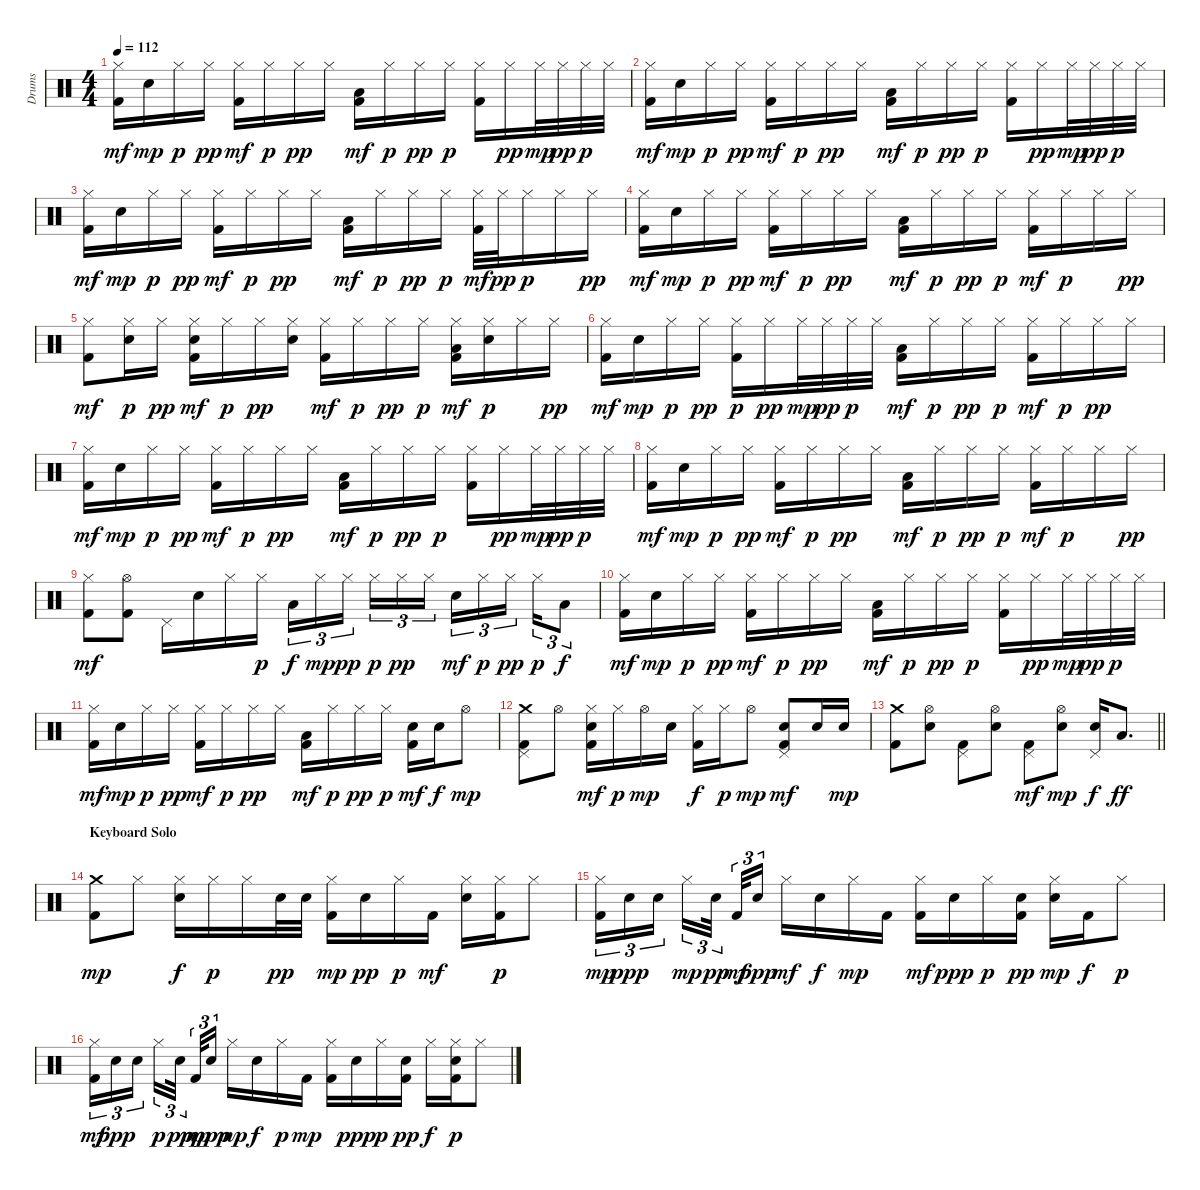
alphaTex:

\track ("Drums" "Drums") {instrument percussion}
\staff {score}
\articulation defaults
\ts (4 4)
\tempo 112
\clef neutral
\ks c
("Kick (hit) 2" "Hi-Hat (closed)").16{dy mf} "Snare (hit) 2".16{dy mp} "Hi-Hat (closed)".16{dy p} "Hi-Hat (closed)".16{dy pp} ("Kick (hit) 2" "Hi-Hat (closed)").16{dy mf} "Hi-Hat (closed)".16{dy p} "Hi-Hat (closed)".16{dy pp} "Hi-Hat (closed)".16 ("Kick (hit) 2" "Low Floor Tom (hit)").16{dy mf} "Hi-Hat (closed)".16{dy p} "Hi-Hat (closed)".16{dy pp} "Hi-Hat (closed)".16{dy p} ("Kick (hit) 2" "Hi-Hat (closed)").16 "Hi-Hat (closed)".16{dy pp} "Hi-Hat (closed)".32{dy mp} "Hi-Hat (closed)".32{dy pp} "Hi-Hat (closed)".32{dy p} "Hi-Hat (closed)".32 |
("Kick (hit) 2" "Hi-Hat (closed)").16{dy mf} "Snare (hit) 2".16{dy mp} "Hi-Hat (closed)".16{dy p} "Hi-Hat (closed)".16{dy pp} ("Kick (hit) 2" "Hi-Hat (closed)").16{dy mf} "Hi-Hat (closed)".16{dy p} "Hi-Hat (closed)".16{dy pp} "Hi-Hat (closed)".16 ("Kick (hit) 2" "Low Floor Tom (hit)").16{dy mf} "Hi-Hat (closed)".16{dy p} "Hi-Hat (closed)".16{dy pp} "Hi-Hat (closed)".16{dy p} ("Kick (hit) 2" "Hi-Hat (closed)").16 "Hi-Hat (closed)".16{dy pp} "Hi-Hat (closed)".32{dy mp} "Hi-Hat (closed)".32{dy pp} "Hi-Hat (closed)".32{dy p} "Hi-Hat (closed)".32 |
("Kick (hit) 2" "Hi-Hat (closed)").16{dy mf} "Snare (hit) 2".16{dy mp} "Hi-Hat (closed)".16{dy p} "Hi-Hat (closed)".16{dy pp} ("Kick (hit) 2" "Hi-Hat (closed)").16{dy mf} "Hi-Hat (closed)".16{dy p} "Hi-Hat (closed)".16{dy pp} "Hi-Hat (closed)".16 ("Kick (hit) 2" "Low Floor Tom (hit)").16{dy mf} "Hi-Hat (closed)".16{dy p} "Hi-Hat (closed)".16{dy pp} "Hi-Hat (closed)".16{dy p} ("Kick (hit) 2" "Hi-Hat (closed)").32{dy mf} "Hi-Hat (closed)".32{dy pp} "Hi-Hat (closed)".16{dy p} "Hi-Hat (closed)".16 "Hi-Hat (closed)".16{dy pp} |
("Kick (hit) 2" "Hi-Hat (closed)").16{dy mf} "Snare (hit) 2".16{dy mp} "Hi-Hat (closed)".16{dy p} "Hi-Hat (closed)".16{dy pp} ("Kick (hit) 2" "Hi-Hat (closed)").16{dy mf} "Hi-Hat (closed)".16{dy p} "Hi-Hat (closed)".16{dy pp} "Hi-Hat (closed)".16 ("Kick (hit) 2" "Low Floor Tom (hit)").16{dy mf} "Hi-Hat (closed)".16{dy p} "Hi-Hat (closed)".16{dy pp} "Hi-Hat (closed)".16{dy p} ("Kick (hit) 2" "Hi-Hat (closed)").16{dy mf} "Hi-Hat (closed)".16{dy p} "Hi-Hat (closed)".16 "Hi-Hat (closed)".16{dy pp} |
("Kick (hit) 2" "Hi-Hat (closed)").8{dy mf} ("Snare (hit) 2" "Hi-Hat (closed)").16{dy p} "Hi-Hat (closed)".16{dy pp} ("Kick (hit) 2" "Snare (hit) 2" "Hi-Hat (closed)").16{dy mf} "Hi-Hat (closed)".16{dy p} "Hi-Hat (closed)".16{dy pp} ("Snare (hit) 2" "Hi-Hat (closed)").16 ("Kick (hit) 2" "Hi-Hat (closed)").16{dy mf} "Hi-Hat (closed)".16{dy p} "Hi-Hat (closed)".16{dy pp} "Hi-Hat (closed)".16{dy p} ("Kick (hit) 2" "Hi-Hat (closed)" "Low Floor Tom (hit)").16{dy mf} ("Snare (hit) 2" "Hi-Hat (closed)").16{dy p} "Hi-Hat (closed)".16 "Hi-Hat (closed)".16{dy pp} |
("Kick (hit) 2" "Hi-Hat (closed)").16{dy mf} "Snare (hit) 2".16{dy mp} "Hi-Hat (closed)".16{dy p} "Hi-Hat (closed)".16{dy pp} ("Kick (hit) 2" "Hi-Hat (closed)").16{dy p} "Hi-Hat (closed)".16{dy pp} "Hi-Hat (closed)".32{dy mp} "Hi-Hat (closed)".32{dy pp} "Hi-Hat (closed)".32{dy p} "Hi-Hat (closed)".32 ("Kick (hit) 2" "Low Floor Tom (hit)").16{dy mf} "Hi-Hat (closed)".16{dy p} "Hi-Hat (closed)".16{dy pp} "Hi-Hat (closed)".16{dy p} ("Kick (hit) 2" "Hi-Hat (closed)").16{dy mf} "Hi-Hat (closed)".16{dy p} "Hi-Hat (closed)".16{dy pp} "Hi-Hat (closed)".16 |
("Kick (hit) 2" "Hi-Hat (closed)").16{dy mf} "Snare (hit) 2".16{dy mp} "Hi-Hat (closed)".16{dy p} "Hi-Hat (closed)".16{dy pp} ("Kick (hit) 2" "Hi-Hat (closed)").16{dy mf} "Hi-Hat (closed)".16{dy p} "Hi-Hat (closed)".16{dy pp} "Hi-Hat (closed)".16 ("Kick (hit) 2" "Low Floor Tom (hit)").16{dy mf} "Hi-Hat (closed)".16{dy p} "Hi-Hat (closed)".16{dy pp} "Hi-Hat (closed)".16{dy p} ("Kick (hit) 2" "Hi-Hat (closed)").16 "Hi-Hat (closed)".16{dy pp} "Hi-Hat (closed)".32{dy mp} "Hi-Hat (closed)".32{dy pp} "Hi-Hat (closed)".32{dy p} "Hi-Hat (closed)".32 |
("Kick (hit) 2" "Hi-Hat (closed)").16{dy mf} "Snare (hit) 2".16{dy mp} "Hi-Hat (closed)".16{dy p} "Hi-Hat (closed)".16{dy pp} ("Kick (hit) 2" "Hi-Hat (closed)").16{dy mf} "Hi-Hat (closed)".16{dy p} "Hi-Hat (closed)".16{dy pp} "Hi-Hat (closed)".16 ("Kick (hit) 2" "Low Floor Tom (hit)").16{dy mf} "Hi-Hat (closed)".16{dy p} "Hi-Hat (closed)".16{dy pp} "Hi-Hat (closed)".16{dy p} ("Kick (hit) 2" "Hi-Hat (closed)").16{dy mf} "Hi-Hat (closed)".16{dy p} "Hi-Hat (closed)".16 "Hi-Hat (closed)".16{dy pp} |
("Kick (hit) 2" "Hi-Hat (closed)").8{dy mf} ("Kick (hit) 2" "Hi-Hat (open)").8 "Pedal Hi-Hat (hit)".16 "Snare (hit) 2".16 "Hi-Hat (closed)".16 "Hi-Hat (closed)".16{dy p} "Low Tom (hit)".16{tu (3 2) dy f} "Hi-Hat (closed)".16{tu (3 2) dy mp} "Hi-Hat (closed)".16{tu (3 2) dy pp beam splitsecondary} "Hi-Hat (closed)".16{tu (3 2) dy p} "Hi-Hat (closed)".16{tu (3 2) dy pp} "Hi-Hat (closed)".16{tu (3 2)} "Snare (hit) 2".16{tu (3 2) dy mf} "Hi-Hat (closed)".16{tu (3 2) dy p} "Hi-Hat (closed)".16{tu (3 2) dy pp beam splitsecondary} "Hi-Hat (closed)".16{tu (3 2) dy p} "Low Tom (hit)".8{tu (3 2) dy f} |
("Kick (hit) 2" "Hi-Hat (closed)").16{dy mf} "Snare (hit) 2".16{dy mp} "Hi-Hat (closed)".16{dy p} "Hi-Hat (closed)".16{dy pp} ("Kick (hit) 2" "Hi-Hat (closed)").16{dy mf} "Hi-Hat (closed)".16{dy p} "Hi-Hat (closed)".16{dy pp} "Hi-Hat (closed)".16 ("Kick (hit) 2" "Low Floor Tom (hit)").16{dy mf} "Hi-Hat (closed)".16{dy p} "Hi-Hat (closed)".16{dy pp} "Hi-Hat (closed)".16{dy p} ("Kick (hit) 2" "Hi-Hat (closed)").16 "Hi-Hat (closed)".16{dy pp} "Hi-Hat (closed)".32{dy mp} "Hi-Hat (closed)".32{dy pp} "Hi-Hat (closed)".32{dy p} "Hi-Hat (closed)".32 |
("Kick (hit) 2" "Hi-Hat (closed)").16{dy mf} "Snare (hit) 2".16{dy mp} "Hi-Hat (closed)".16{dy p} "Hi-Hat (closed)".16{dy pp} ("Kick (hit) 2" "Hi-Hat (closed)").16{dy mf} "Hi-Hat (closed)".16{dy p} "Hi-Hat (closed)".16{dy pp} "Hi-Hat (closed)".16 ("Kick (hit) 2" "Low Floor Tom (hit)").16{dy mf} "Hi-Hat (closed)".16{dy p} "Hi-Hat (closed)".16{dy pp} "Hi-Hat (closed)".16{dy p} ("Kick (hit) 2" "Snare (hit) 2").16{dy mf} "Snare (hit) 2".16{dy f} "Hi-Hat (open)".8{dy mp} |
("Kick (hit) 2" "Pedal Hi-Hat (hit)" "Crash medium (hit)").8 "Hi-Hat (open)".8 ("Kick (hit) 2" "Snare (hit) 2" "Hi-Hat (closed)").16{dy mf} "Hi-Hat (closed)".16{dy p} "Hi-Hat (open)".16{dy mp} "Snare (hit) 2".16 ("Kick (hit) 2" "Hi-Hat (closed)").16{dy f} "Hi-Hat (closed)".16{dy p} "Hi-Hat (open)".8{dy mp} ("Kick (hit) 2" "Snare (hit) 2" "Pedal Hi-Hat (hit)").8{dy mf} "Snare (hit) 2".16 "Snare (hit) 2".16{dy mp} |
\barLineRight lightlight
("Kick (hit) 2" "Crash medium (hit)").8 ("Snare (hit) 2" "Hi-Hat (open)").8 ("Kick (hit) 2" "Pedal Hi-Hat (hit)").8 ("Snare (hit) 2" "Hi-Hat (open)").8 ("Kick (hit) 2" "Pedal Hi-Hat (hit)").8{dy mf} ("Snare (hit) 2" "Hi-Hat (open)").8{dy mp} ("Snare (hit) 2" "Pedal Hi-Hat (hit)").16{dy f} "Low Floor Tom (hit)".8{d dy ff} |
\section ("" "Keyboard Solo")
("Kick (hit) 2" "Crash medium (hit)").8{dy mp} "Hi-Hat (closed)".8 ("Snare (hit) 2" "Hi-Hat (closed)").16{dy f} "Hi-Hat (closed)".16{dy p} "Hi-Hat (closed)".16 "Snare (hit) 2".32{dy pp} "Snare (hit) 2".32 ("Kick (hit) 2" "Hi-Hat (closed)").16{dy mp} "Snare (hit) 2".16{dy pp} "Hi-Hat (closed)".16{dy p} "Kick (hit) 2".16{dy mf} ("Snare (hit) 2" "Hi-Hat (closed)").16 ("Kick (hit) 2" "Hi-Hat (closed)").16{dy p} "Hi-Hat (closed)".8 |
("Kick (hit) 2" "Hi-Hat (closed)").16{tu (3 2) dy mp} "Snare (hit) 2".16{tu (3 2) dy ppp} "Snare (hit) 2".16{tu (3 2) beam splitsecondary} "Hi-Hat (closed)".16{tu (3 2) dy mp} "Snare (hit) 2".32{tu (3 2) dy pp beam splitsecondary} "Kick (hit) 2".32{tu (3 2) dy mf} "Snare (hit) 2".16{tu (3 2) dy ppp} "Hi-Hat (closed)".16{dy mf} "Snare (hit) 2".16{dy f} "Hi-Hat (closed)".16{dy mp} "Kick (hit) 2".16 ("Kick (hit) 2" "Hi-Hat (closed)").16{dy mf} "Snare (hit) 2".16{dy ppp} "Hi-Hat (closed)".16{dy p} ("Kick (hit) 2" "Snare (hit) 2").16{dy pp} ("Snare (hit) 2" "Hi-Hat (closed)").16{dy mp} "Kick (hit) 2".16{dy f} "Hi-Hat (closed)".8{dy p} |
("Kick (hit) 2" "Hi-Hat (closed)").16{tu (3 2) dy mf} "Snare (hit) 2".16{tu (3 2) dy ppp} "Snare (hit) 2".16{tu (3 2) beam splitsecondary} "Hi-Hat (closed)".16{tu (3 2) dy p} "Snare (hit) 2".32{tu (3 2) dy pp beam splitsecondary} "Kick (hit) 2".32{tu (3 2) dy mp} "Snare (hit) 2".16{tu (3 2) dy ppp} "Hi-Hat (closed)".16{dy mp} "Snare (hit) 2".16{dy f} "Hi-Hat (closed)".16{dy p} "Kick (hit) 2".16{dy mp} ("Kick (hit) 2" "Hi-Hat (closed)").16 "Snare (hit) 2".16{dy ppp} "Hi-Hat (closed)".16{dy p} ("Kick (hit) 2" "Snare (hit) 2").16{dy pp} "Hi-Hat (closed)".16{dy f} ("Kick (hit) 2" "Snare (hit) 2" "Hi-Hat (closed)").16{dy p} "Hi-Hat (closed)".8
